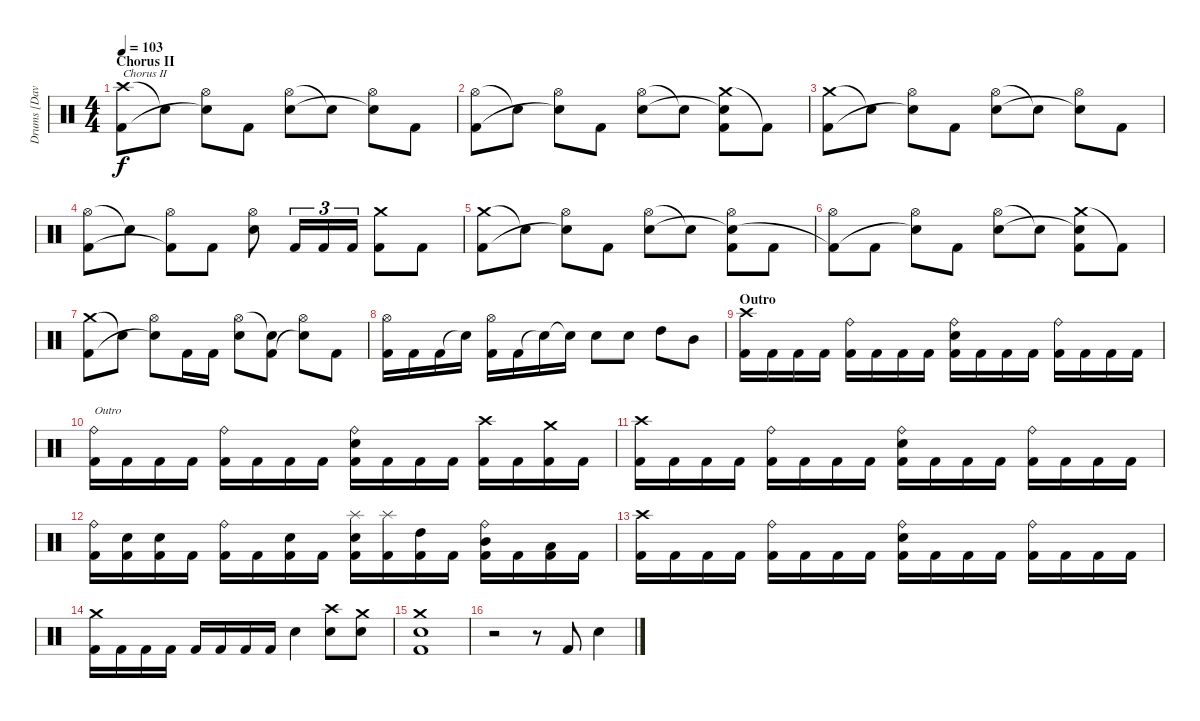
\track ("Drums [Dave Culross]" "Drums [Dav") {instrument percussion}
\staff {score}
\articulation defaults
\ts (4 4)
\section ("" "Chorus II")
\tempo 103
\clef neutral
\ks c
("Crash high (hit)" "Kick (hit) 2").8{txt "Chorus II" dy f} "Snare (hit)"{t}.8 ("Hi-Hat (open)" "Snare (hit)"{t}).8 "Kick (hit) 2".8 ("Hi-Hat (open)" "Electric Snare (hit)").8 "Snare (hit)"{t}.8 ("Hi-Hat (open)" "Snare (hit)"{t}).8 "Kick (hit) 2".8 |
("Hi-Hat (open)" "Kick (hit) 2").8 "Snare (hit)"{t}.8 ("Hi-Hat (open)" "Snare (hit)"{t}).8 "Kick (hit) 2".8 ("Hi-Hat (open)" "Electric Snare (hit)").8 "Snare (hit)"{t}.8 ("Crash medium (hit)" "Snare (hit)"{t} "Kick (hit) 2").8 "Kick (hit) 2"{t}.8 |
("Crash medium (hit)" "Kick (hit) 2").8 "Snare (hit)"{t}.8 ("Hi-Hat (open)" "Snare (hit)"{t}).8 "Kick (hit) 2".8 ("Hi-Hat (open)" "Electric Snare (hit)").8 "Snare (hit)"{t}.8 ("Hi-Hat (open)" "Snare (hit)"{t}).8 "Kick (hit) 2".8 |
("Hi-Hat (open)" "Kick (hit) 2").8 "Snare (hit)"{t}.8 ("Hi-Hat (open)" "Kick (hit) 2"{t}).8 "Kick (hit) 2".8 ("Hi-Hat (open)" "Electric Snare (hit)").8 "Kick (hit) 2".16{tu (3 2)} "Kick (hit) 2".16{tu (3 2)} "Kick (hit) 2".16{tu (3 2)} ("Crash medium (hit)" "Kick (hit) 2").8 "Kick (hit) 2".8 |
("Crash medium (hit)" "Kick (hit) 2").8 "Snare (hit)"{t}.8 ("Hi-Hat (open)" "Snare (hit)"{t}).8 "Kick (hit) 2".8 ("Hi-Hat (open)" "Electric Snare (hit)").8 "Snare (hit)"{t}.8 ("Hi-Hat (open)" "Snare (hit)"{t} "Kick (hit) 2").8 "Kick (hit) 2".8 |
("Hi-Hat (open)" "Kick (hit) 2"{t}).8 "Kick (hit) 2".8 ("Hi-Hat (open)" "Snare (hit)"{t}).8 "Kick (hit) 2".8 ("Hi-Hat (open)" "Electric Snare (hit)").8 "Snare (hit)"{t}.8 ("Crash medium (hit)" "Snare (hit)"{t} "Kick (hit) 2").8 "Kick (hit) 2"{t}.8 |
("Crash medium (hit)" "Kick (hit) 2").8 "Snare (hit)"{t}.8 ("Hi-Hat (open)" "Snare (hit)"{t}).8 "Kick (hit) 2".16 "Kick (hit) 2".16 ("Hi-Hat (open)" "Electric Snare (hit)").8 ("Snare (hit)"{t} "Kick (hit) 2").8 ("Hi-Hat (open)" "Snare (hit)"{t}).8 "Kick (hit) 2".8 |
("Hi-Hat (open)" "Kick (hit) 2").16 "Kick (hit) 2".16 "Kick (hit) 2".16 "Snare (hit)"{t}.16 ("Hi-Hat (open)" "Kick (hit) 2").16 "Kick (hit) 2".16 "Snare (hit)"{t}.16 "Snare (hit)"{t}.16 "Electric Snare (hit)".8 "Electric Snare (hit)".8 "High Tom (hit)".8 "Mid Tom (hit)".8 |
\section ("" "Outro")
("Crash high (hit)" "Kick (hit) 2").16 "Kick (hit) 2".16 "Kick (hit) 2".16 "Kick (hit) 2".16 ("Ride (bell)" "Kick (hit) 2").16 "Kick (hit) 2".16 "Kick (hit) 2".16 "Kick (hit) 2".16 ("Ride (bell)" "Electric Snare (hit)" "Kick (hit) 2").16 "Kick (hit) 2".16 "Kick (hit) 2".16 "Kick (hit) 2".16 ("Ride (bell)" "Kick (hit) 2").16 "Kick (hit) 2".16 "Kick (hit) 2".16 "Kick (hit) 2".16 |
("Ride (bell)" "Kick (hit) 2").16{txt "Outro"} "Kick (hit) 2".16 "Kick (hit) 2".16 "Kick (hit) 2".16 ("Ride (bell)" "Kick (hit) 2").16 "Kick (hit) 2".16 "Kick (hit) 2".16 "Kick (hit) 2".16 ("Ride (bell)" "Electric Snare (hit)" "Kick (hit) 2").16 "Kick (hit) 2".16 "Kick (hit) 2".16 "Kick (hit) 2".16 ("Crash high (hit)" "Kick (hit) 2").16 "Kick (hit) 2".16 ("Crash medium (hit)" "Kick (hit) 2").16 "Kick (hit) 2".16 |
("Crash high (hit)" "Kick (hit) 2").16 "Kick (hit) 2".16 "Kick (hit) 2".16 "Kick (hit) 2".16 ("Ride (bell)" "Kick (hit) 2").16 "Kick (hit) 2".16 "Kick (hit) 2".16 "Kick (hit) 2".16 ("Ride (bell)" "Electric Snare (hit)" "Kick (hit) 2").16 "Kick (hit) 2".16 "Kick (hit) 2".16 "Kick (hit) 2".16 ("Ride (bell)" "Kick (hit) 2").16 "Kick (hit) 2".16 "Kick (hit) 2".16 "Kick (hit) 2".16 |
("Ride (bell)" "Kick (hit) 2").16 ("Electric Snare (hit)" "Kick (hit) 2").16 ("Electric Snare (hit)" "Kick (hit) 2").16 "Kick (hit) 2".16 ("Ride (bell)" "Kick (hit) 2").16 "Kick (hit) 2".16 ("Electric Snare (hit)" "Kick (hit) 2").16 "Kick (hit) 2".16 ("Splash (hit)" "Electric Snare (hit)" "Kick (hit) 2").16 ("Splash (hit)" "Kick (hit) 2").16 ("High Tom (hit)" "Kick (hit) 2").16 "Kick (hit) 2".16 ("Ride (bell)" "Mid Tom (hit)" "Kick (hit) 2").16 "Kick (hit) 2".16 ("Low Tom (hit)" "Kick (hit) 2").16 "Kick (hit) 2".16 |
("Crash high (hit)" "Kick (hit) 2").16 "Kick (hit) 2".16 "Kick (hit) 2".16 "Kick (hit) 2".16 ("Ride (bell)" "Kick (hit) 2").16 "Kick (hit) 2".16 "Kick (hit) 2".16 "Kick (hit) 2".16 ("Ride (bell)" "Electric Snare (hit)" "Kick (hit) 2").16 "Kick (hit) 2".16 "Kick (hit) 2".16 "Kick (hit) 2".16 ("Ride (bell)" "Kick (hit) 2").16 "Kick (hit) 2".16 "Kick (hit) 2".16 "Kick (hit) 2".16 |
("Crash medium (hit)" "Kick (hit) 2").16 "Kick (hit) 2".16 "Kick (hit) 2".16 "Kick (hit) 2".16 "Kick (hit) 2".16 "Kick (hit) 2".16 "Kick (hit) 2".16 "Kick (hit) 2".16 "Electric Snare (hit)".4 ("Crash high (hit)" "Electric Snare (hit)").8 ("Crash medium (hit)" "Electric Snare (hit)").8 |
("Crash medium (hit)" "Electric Snare (hit)" "Kick (hit) 2").1 |
r.2 r.8 "Kick (hit) 2".8 "Electric Snare (hit)".4
